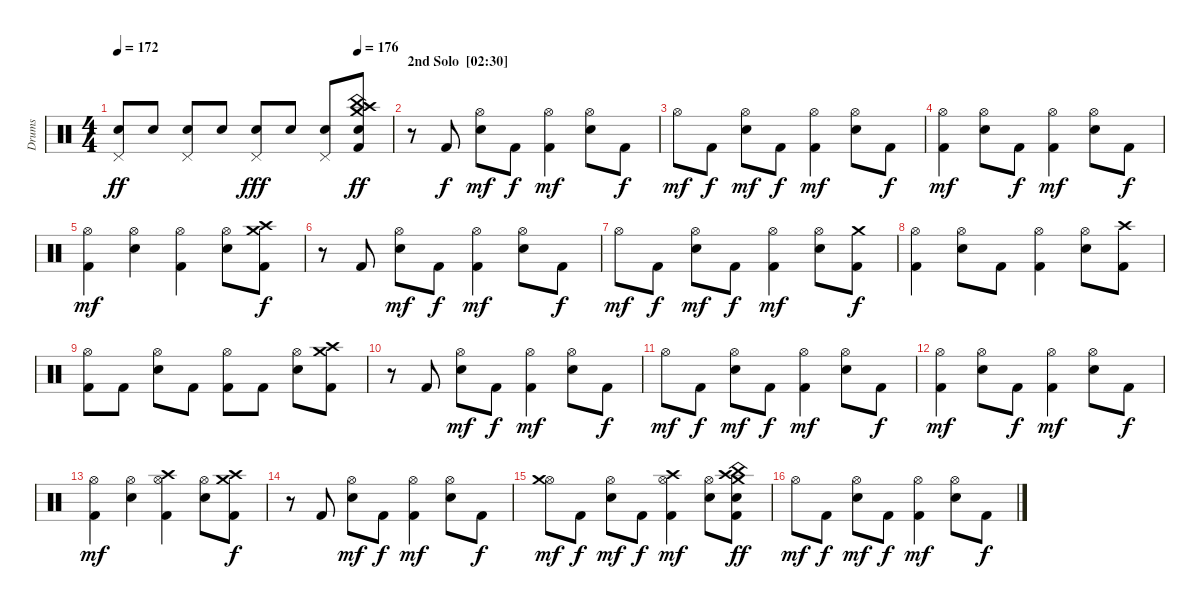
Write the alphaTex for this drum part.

\track ("Drums" "Drums") {instrument percussion}
\staff {score}
\articulation defaults
\ts (4 4)
\tempo 172
\tempo (176 0.875)
\clef neutral
\ks c
("Pedal Hi-Hat (hit)" "Electric Snare (hit)").8{dy ff} "Electric Snare (hit)".8 ("Pedal Hi-Hat (hit)" "Electric Snare (hit)").8 "Electric Snare (hit)".8 ("Pedal Hi-Hat (hit)" "Electric Snare (hit)").8{dy fff} "Electric Snare (hit)".8 ("Pedal Hi-Hat (hit)" "Electric Snare (hit)").8 ("Crash medium (hit)" "Crash high (hit)" "China (hit)" "Electric Snare (hit)" "Kick (hit) 2").8{dy ff} |
\section ("" "2nd Solo  [02:30]")
r.8 "Kick (hit) 2".8{dy f} ("Hi-Hat (open)" "Electric Snare (hit)").8{dy mf} "Kick (hit) 2".8{dy f} ("Hi-Hat (open)" "Kick (hit) 2").4{dy mf} ("Hi-Hat (open)" "Electric Snare (hit)").8 "Kick (hit) 2".8{dy f} |
"Hi-Hat (open)".8{dy mf} "Kick (hit) 2".8{dy f} ("Hi-Hat (open)" "Electric Snare (hit)").8{dy mf} "Kick (hit) 2".8{dy f} ("Hi-Hat (open)" "Kick (hit) 2").4{dy mf} ("Hi-Hat (open)" "Electric Snare (hit)").8 "Kick (hit) 2".8{dy f} |
("Hi-Hat (open)" "Kick (hit) 2").4{dy mf} ("Hi-Hat (open)" "Electric Snare (hit)").8 "Kick (hit) 2".8{dy f} ("Hi-Hat (open)" "Kick (hit) 2").4{dy mf} ("Hi-Hat (open)" "Electric Snare (hit)").8 "Kick (hit) 2".8{dy f} |
("Hi-Hat (open)" "Kick (hit) 2").4{dy mf} ("Hi-Hat (open)" "Electric Snare (hit)").4 ("Hi-Hat (open)" "Kick (hit) 2").4 ("Hi-Hat (open)" "Electric Snare (hit)").8 ("Crash medium (hit)" "Crash high (hit)" "Kick (hit) 2").8{dy f} |
r.8 "Kick (hit) 2".8 ("Hi-Hat (open)" "Electric Snare (hit)").8{dy mf} "Kick (hit) 2".8{dy f} ("Hi-Hat (open)" "Kick (hit) 2").4{dy mf} ("Hi-Hat (open)" "Electric Snare (hit)").8 "Kick (hit) 2".8{dy f} |
"Hi-Hat (open)".8{dy mf} "Kick (hit) 2".8{dy f} ("Hi-Hat (open)" "Electric Snare (hit)").8{dy mf} "Kick (hit) 2".8{dy f} ("Hi-Hat (open)" "Kick (hit) 2").4{dy mf} ("Hi-Hat (open)" "Electric Snare (hit)").8 ("Crash medium (hit)" "Kick (hit) 2").8{dy f} |
("Hi-Hat (open)" "Kick (hit) 2").4 ("Hi-Hat (open)" "Electric Snare (hit)").8 "Kick (hit) 2".8 ("Hi-Hat (open)" "Kick (hit) 2").4 ("Hi-Hat (open)" "Electric Snare (hit)").8 ("Crash high (hit)" "Kick (hit) 2").8 |
("Hi-Hat (open)" "Kick (hit) 2").8 "Kick (hit) 2".8 ("Hi-Hat (open)" "Electric Snare (hit)").8 "Kick (hit) 2".8 ("Hi-Hat (open)" "Kick (hit) 2").8 "Kick (hit) 2".8 ("Hi-Hat (open)" "Electric Snare (hit)").8 ("Crash medium (hit)" "Crash high (hit)" "Kick (hit) 2").8 |
\section ("" "")
r.8 "Kick (hit) 2".8 ("Hi-Hat (open)" "Electric Snare (hit)").8{dy mf} "Kick (hit) 2".8{dy f} ("Hi-Hat (open)" "Kick (hit) 2").4{dy mf} ("Hi-Hat (open)" "Electric Snare (hit)").8 "Kick (hit) 2".8{dy f} |
"Hi-Hat (open)".8{dy mf} "Kick (hit) 2".8{dy f} ("Hi-Hat (open)" "Electric Snare (hit)").8{dy mf} "Kick (hit) 2".8{dy f} ("Hi-Hat (open)" "Kick (hit) 2").4{dy mf} ("Hi-Hat (open)" "Electric Snare (hit)").8 "Kick (hit) 2".8{dy f} |
("Hi-Hat (open)" "Kick (hit) 2").4{dy mf} ("Hi-Hat (open)" "Electric Snare (hit)").8 "Kick (hit) 2".8{dy f} ("Hi-Hat (open)" "Kick (hit) 2").4{dy mf} ("Hi-Hat (open)" "Electric Snare (hit)").8 "Kick (hit) 2".8{dy f} |
("Hi-Hat (open)" "Kick (hit) 2").4{dy mf} ("Hi-Hat (open)" "Electric Snare (hit)").4 ("Hi-Hat (open)" "Crash high (hit)" "Kick (hit) 2").4 ("Hi-Hat (open)" "Electric Snare (hit)").8 ("Crash medium (hit)" "Crash high (hit)" "Kick (hit) 2").8{dy f} |
r.8 "Kick (hit) 2".8 ("Hi-Hat (open)" "Electric Snare (hit)").8{dy mf} "Kick (hit) 2".8{dy f} ("Hi-Hat (open)" "Kick (hit) 2").4{dy mf} ("Hi-Hat (open)" "Electric Snare (hit)").8 "Kick (hit) 2".8{dy f} |
("Hi-Hat (open)" "Crash medium (hit)").8{dy mf} "Kick (hit) 2".8{dy f} ("Hi-Hat (open)" "Electric Snare (hit)").8{dy mf} "Kick (hit) 2".8{dy f} ("Hi-Hat (open)" "Crash high (hit)" "Kick (hit) 2").4{dy mf} ("Hi-Hat (open)" "Electric Snare (hit)").8 ("Crash high (hit)" "China (hit)" "Crash medium (hit)" "Snare (hit) 2" "Kick (hit) 2").8{dy ff} |
"Hi-Hat (open)".8{dy mf} "Kick (hit) 2".8{dy f} ("Hi-Hat (open)" "Electric Snare (hit)").8{dy mf} "Kick (hit) 2".8{dy f} ("Hi-Hat (open)" "Kick (hit) 2").4{dy mf} ("Hi-Hat (open)" "Electric Snare (hit)").8 "Kick (hit) 2".8{dy f}
